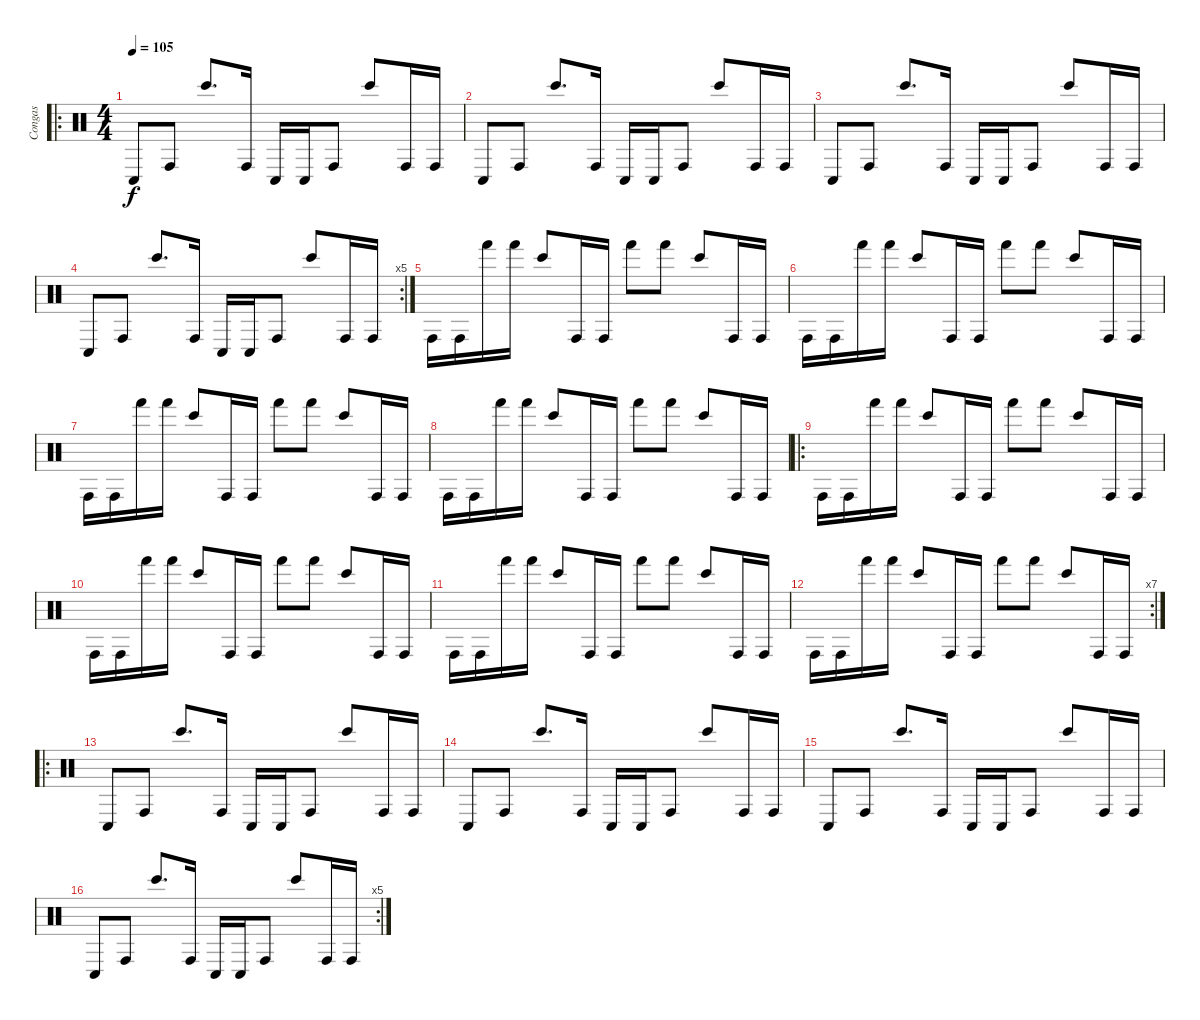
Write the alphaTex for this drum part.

\track ("Congas" "Congas") {instrument percussion}
\staff {score}
\articulation defaults
\ro
\ts (4 4)
\tempo 105
\clef neutral
\ks c "Conga low (hit)".8{dy f} "Conga high (hit)".8 "Bongo High (hit)".8{d} "Conga high (hit)".16 "Conga low (hit)".16 "Conga low (hit)".16 "Conga high (hit)".8 "Bongo High (hit)".8 "Conga high (hit)".16 "Conga high (hit)".16
|
"Conga low (hit)".8 "Conga high (hit)".8 "Bongo High (hit)".8{d} "Conga high (hit)".16 "Conga low (hit)".16 "Conga low (hit)".16 "Conga high (hit)".8 "Bongo High (hit)".8 "Conga high (hit)".16 "Conga high (hit)".16 |
"Conga low (hit)".8 "Conga high (hit)".8 "Bongo High (hit)".8{d} "Conga high (hit)".16 "Conga low (hit)".16 "Conga low (hit)".16 "Conga high (hit)".8 "Bongo High (hit)".8 "Conga high (hit)".16 "Conga high (hit)".16 |
\rc 5 "Conga low (hit)".8 "Conga high (hit)".8 "Bongo High (hit)".8{d} "Conga high (hit)".16 "Conga low (hit)".16 "Conga low (hit)".16 "Conga high (hit)".8 "Bongo High (hit)".8 "Conga high (hit)".16 "Conga high (hit)".16
|
"Conga high (hit)".16 "Conga high (hit)".16 "Hand (hit)".16 "Hand (hit)".16 "Bongo High (hit)".8 "Conga high (hit)".16 "Conga high (hit)".16 "Hand (hit)".8 "Hand (hit)".8 "Bongo High (hit)".8 "Conga high (hit)".16 "Conga high (hit)".16 |
"Conga high (hit)".16 "Conga high (hit)".16 "Hand (hit)".16 "Hand (hit)".16 "Bongo High (hit)".8 "Conga high (hit)".16 "Conga high (hit)".16 "Hand (hit)".8 "Hand (hit)".8 "Bongo High (hit)".8 "Conga high (hit)".16 "Conga high (hit)".16 |
"Conga high (hit)".16 "Conga high (hit)".16 "Hand (hit)".16 "Hand (hit)".16 "Bongo High (hit)".8 "Conga high (hit)".16 "Conga high (hit)".16 "Hand (hit)".8 "Hand (hit)".8 "Bongo High (hit)".8 "Conga high (hit)".16 "Conga high (hit)".16 |
"Conga high (hit)".16 "Conga high (hit)".16 "Hand (hit)".16 "Hand (hit)".16 "Bongo High (hit)".8 "Conga high (hit)".16 "Conga high (hit)".16 "Hand (hit)".8 "Hand (hit)".8 "Bongo High (hit)".8 "Conga high (hit)".16 "Conga high (hit)".16 |
\ro "Conga high (hit)".16 "Conga high (hit)".16 "Hand (hit)".16 "Hand (hit)".16 "Bongo High (hit)".8 "Conga high (hit)".16 "Conga high (hit)".16 "Hand (hit)".8 "Hand (hit)".8 "Bongo High (hit)".8 "Conga high (hit)".16 "Conga high (hit)".16
|
"Conga high (hit)".16 "Conga high (hit)".16 "Hand (hit)".16 "Hand (hit)".16 "Bongo High (hit)".8 "Conga high (hit)".16 "Conga high (hit)".16 "Hand (hit)".8 "Hand (hit)".8 "Bongo High (hit)".8 "Conga high (hit)".16 "Conga high (hit)".16 |
"Conga high (hit)".16 "Conga high (hit)".16 "Hand (hit)".16 "Hand (hit)".16 "Bongo High (hit)".8 "Conga high (hit)".16 "Conga high (hit)".16 "Hand (hit)".8 "Hand (hit)".8 "Bongo High (hit)".8 "Conga high (hit)".16 "Conga high (hit)".16 |
\rc 7 "Conga high (hit)".16 "Conga high (hit)".16 "Hand (hit)".16 "Hand (hit)".16 "Bongo High (hit)".8 "Conga high (hit)".16 "Conga high (hit)".16 "Hand (hit)".8 "Hand (hit)".8 "Bongo High (hit)".8 "Conga high (hit)".16 "Conga high (hit)".16
|
\ro "Conga low (hit)".8 "Conga high (hit)".8 "Bongo High (hit)".8{d} "Conga high (hit)".16 "Conga low (hit)".16 "Conga low (hit)".16 "Conga high (hit)".8 "Bongo High (hit)".8 "Conga high (hit)".16 "Conga high (hit)".16
|
"Conga low (hit)".8 "Conga high (hit)".8 "Bongo High (hit)".8{d} "Conga high (hit)".16 "Conga low (hit)".16 "Conga low (hit)".16 "Conga high (hit)".8 "Bongo High (hit)".8 "Conga high (hit)".16 "Conga high (hit)".16 |
"Conga low (hit)".8 "Conga high (hit)".8 "Bongo High (hit)".8{d} "Conga high (hit)".16 "Conga low (hit)".16 "Conga low (hit)".16 "Conga high (hit)".8 "Bongo High (hit)".8 "Conga high (hit)".16 "Conga high (hit)".16 |
\rc 5 "Conga low (hit)".8 "Conga high (hit)".8 "Bongo High (hit)".8{d} "Conga high (hit)".16 "Conga low (hit)".16 "Conga low (hit)".16 "Conga high (hit)".8 "Bongo High (hit)".8 "Conga high (hit)".16 "Conga high (hit)".16
